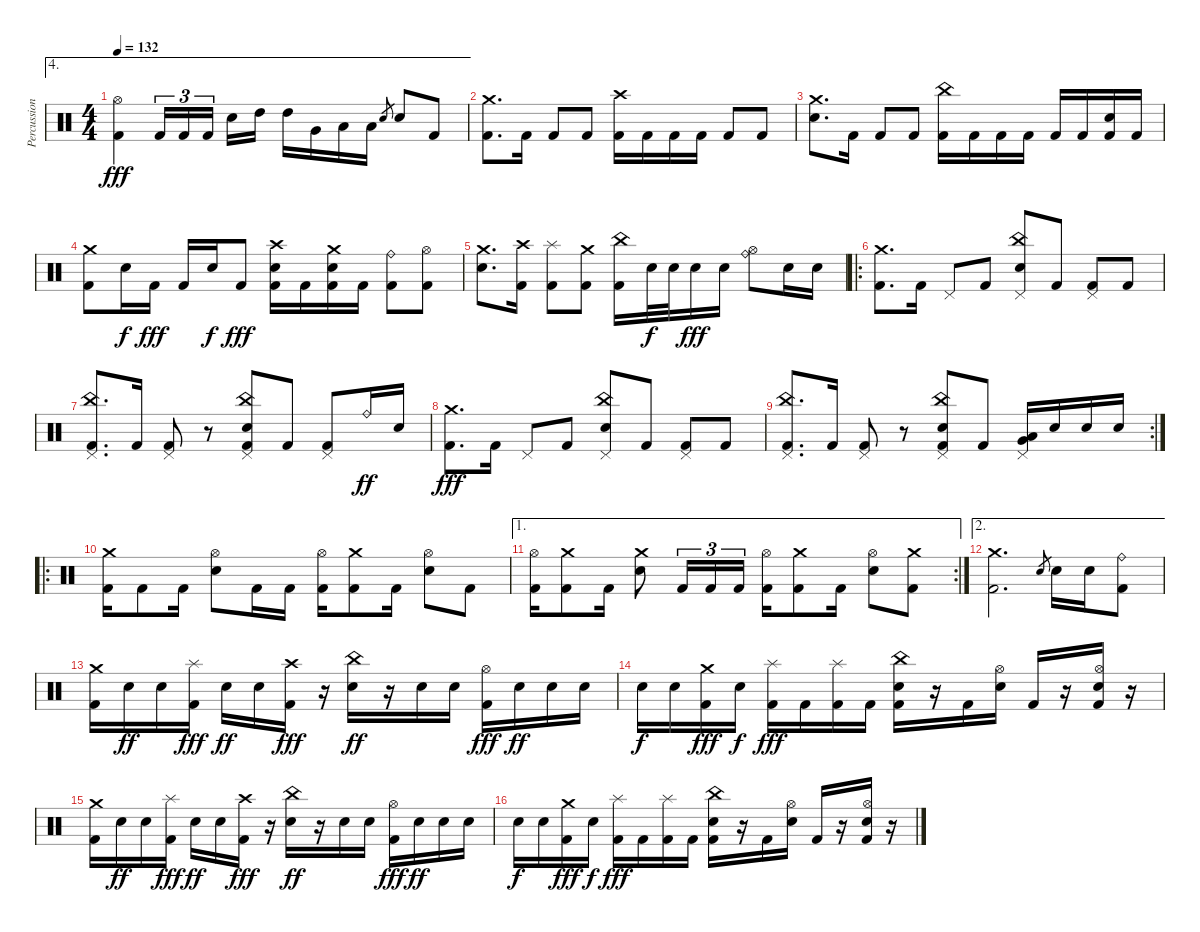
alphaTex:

\track ("Percussion" "Percussion") {instrument percussion}
\staff {score}
\articulation defaults
\ae 4
\ts (4 4)
\tempo 132
\clef neutral
\ks c
("Kick (hit) 2" "Hi-Hat (open)").4{dy fff} "Kick (hit) 2".16{tu (3 2)} "Kick (hit) 2".16{tu (3 2)} "Kick (hit) 2".16{tu (3 2) beam splitsecondary} "Electric Snare (hit)".16 "High Tom (hit)".16 "High Tom (hit)".16 "Very Low Tom (hit)".16 "Low Floor Tom (hit)".16 "Low Floor Tom (hit)".16 "Electric Snare (hit)".8{gr} "Electric Snare (hit)".8 "Kick (hit) 2".8 |
("Crash medium (hit)" "Kick (hit) 2").8{d} "Kick (hit) 2".16 "Kick (hit) 2".8 "Kick (hit) 2".8 ("Kick (hit) 2" "Crash high (hit)").16 "Kick (hit) 2".16 "Kick (hit) 2".16 "Kick (hit) 2".16 "Kick (hit) 2".8 "Kick (hit) 2".8 |
("Crash medium (hit)" "Electric Snare (hit)").8{d} "Kick (hit) 2".16 "Kick (hit) 2".8 "Kick (hit) 2".8 ("Kick (hit) 2" "China (hit)").16 "Kick (hit) 2".16 "Kick (hit) 2".16 "Kick (hit) 2".16 "Kick (hit) 2".16 "Kick (hit) 2".16 ("Electric Snare (hit)" "Kick (hit) 2").16 "Kick (hit) 2".16 |
("Crash medium (hit)" "Kick (hit) 2").8 "Electric Snare (hit)".16{dy f} "Kick (hit) 2".16{dy fff} "Kick (hit) 2".16 "Electric Snare (hit)".16{dy f} "Kick (hit) 2".8{dy fff} ("Kick (hit) 2" "Crash high (hit)" "Electric Snare (hit)").16 "Kick (hit) 2".16 ("Crash medium (hit)" "Kick (hit) 2" "Electric Snare (hit)").16 "Kick (hit) 2".16 ("Kick (hit) 2" "Ride (bell)").8 ("Kick (hit) 2" "Hi-Hat (open)").8 |
("Crash medium (hit)" "Electric Snare (hit)").8{d} ("Kick (hit) 2" "Crash high (hit)").16 ("Kick (hit) 2" "Splash (hit)").8 ("Kick (hit) 2" "Crash medium (hit)").8 ("Kick (hit) 2" "China (hit)").16 "Electric Snare (hit)".32{dy f} "Electric Snare (hit)".32 "Electric Snare (hit)".16{dy fff} "Electric Snare (hit)".16 ("Ride (bell)" "Hi-Hat (open)").8 "Electric Snare (hit)".16 "Electric Snare (hit)".16 |
\ro
("Crash medium (hit)" "Kick (hit) 2").8{d} "Kick (hit) 2".16 "Pedal Hi-Hat (hit)".8 "Kick (hit) 2".8 ("Pedal Hi-Hat (hit)" "China (hit)" "Electric Snare (hit)").8 "Kick (hit) 2".8 ("Kick (hit) 2" "Pedal Hi-Hat (hit)").8 "Kick (hit) 2".8 |
("Kick (hit) 2" "China (hit)" "Pedal Hi-Hat (hit)").8{d} "Kick (hit) 2".16 ("Kick (hit) 2" "Pedal Hi-Hat (hit)").8 r.8 ("Pedal Hi-Hat (hit)" "Kick (hit) 2" "China (hit)" "Electric Snare (hit)").8 "Kick (hit) 2".8 ("Kick (hit) 2" "Pedal Hi-Hat (hit)").8 "Ride (bell)".16{dy ff} "Electric Snare (hit)".16 |
("Crash medium (hit)" "Kick (hit) 2").8{d dy fff} "Kick (hit) 2".16 "Pedal Hi-Hat (hit)".8 "Kick (hit) 2".8 ("Pedal Hi-Hat (hit)" "China (hit)" "Electric Snare (hit)").8 "Kick (hit) 2".8 ("Kick (hit) 2" "Pedal Hi-Hat (hit)").8 "Kick (hit) 2".8 |
\rc 2
("Kick (hit) 2" "China (hit)" "Pedal Hi-Hat (hit)").8{d} "Kick (hit) 2".16 ("Kick (hit) 2" "Pedal Hi-Hat (hit)").8 r.8 ("Pedal Hi-Hat (hit)" "Kick (hit) 2" "China (hit)" "Electric Snare (hit)").8 "Kick (hit) 2".8 ("Very Low Tom (hit)" "Low Floor Tom (hit)" "Pedal Hi-Hat (hit)").16 "Electric Snare (hit)".16 "Electric Snare (hit)".16 "Electric Snare (hit)".16 |
\ro
("Kick (hit) 2" "Crash medium (hit)").16 "Kick (hit) 2".8 "Kick (hit) 2".16 ("Electric Snare (hit)" "Hi-Hat (open)").8 "Kick (hit) 2".16 "Kick (hit) 2".16 ("Kick (hit) 2" "Hi-Hat (open)").16 ("Kick (hit) 2" "Crash medium (hit)").8 "Kick (hit) 2".16 ("Electric Snare (hit)" "Hi-Hat (open)").8 "Kick (hit) 2".8 |
\ae 1
\rc 2
("Kick (hit) 2" "Hi-Hat (open)").16 ("Kick (hit) 2" "Crash medium (hit)").8 "Kick (hit) 2".16 ("Crash medium (hit)" "Electric Snare (hit)").8 "Kick (hit) 2".16{tu (3 2)} "Kick (hit) 2".16{tu (3 2)} "Kick (hit) 2".16{tu (3 2)} ("Kick (hit) 2" "Hi-Hat (open)").16 ("Kick (hit) 2" "Crash medium (hit)").8 "Kick (hit) 2".16 ("Electric Snare (hit)" "Hi-Hat (open)").8 ("Kick (hit) 2" "Crash medium (hit)").8 |
\ae 2
("Kick (hit) 2" "Crash medium (hit)").2{d} "Electric Snare (hit)".8{gr} "Electric Snare (hit)".16 "Electric Snare (hit)".16 ("Kick (hit) 2" "Ride (bell)").8 |
("Kick (hit) 2" "Crash medium (hit)").16 "Electric Snare (hit)".16{dy ff} "Electric Snare (hit)".16 ("Kick (hit) 2" "Splash (hit)").16{dy fff} "Electric Snare (hit)".16{dy ff} "Electric Snare (hit)".16 ("Kick (hit) 2" "Crash high (hit)").16{dy fff} r.16 ("China (hit)" "Electric Snare (hit)").16{dy ff} r.16 "Electric Snare (hit)".16 "Electric Snare (hit)".16 ("Hi-Hat (open)" "Kick (hit) 2").16{dy fff} "Electric Snare (hit)".16{dy ff} "Electric Snare (hit)".16 "Electric Snare (hit)".16 |
"Electric Snare (hit)".16{dy f} "Electric Snare (hit)".16 ("Kick (hit) 2" "Crash medium (hit)").16{dy fff} "Electric Snare (hit)".16{dy f} ("Kick (hit) 2" "Splash (hit)").16{dy fff} "Kick (hit) 2".16 ("Kick (hit) 2" "Splash (hit)").16 "Kick (hit) 2".16 ("Electric Snare (hit)" "Kick (hit) 2" "China (hit)").16 r.16 "Kick (hit) 2".16 ("Electric Snare (hit)" "Hi-Hat (open)").16 "Kick (hit) 2".16 r.16 ("Hi-Hat (open)" "Kick (hit) 2" "Electric Snare (hit)").16 r.16 |
("Kick (hit) 2" "Crash medium (hit)").16 "Electric Snare (hit)".16{dy ff} "Electric Snare (hit)".16 ("Kick (hit) 2" "Splash (hit)").16{dy fff} "Electric Snare (hit)".16{dy ff} "Electric Snare (hit)".16 ("Kick (hit) 2" "Crash high (hit)").16{dy fff} r.16 ("China (hit)" "Electric Snare (hit)").16{dy ff} r.16 "Electric Snare (hit)".16 "Electric Snare (hit)".16 ("Hi-Hat (open)" "Kick (hit) 2").16{dy fff} "Electric Snare (hit)".16{dy ff} "Electric Snare (hit)".16 "Electric Snare (hit)".16 |
"Electric Snare (hit)".16{dy f} "Electric Snare (hit)".16 ("Kick (hit) 2" "Crash medium (hit)").16{dy fff} "Electric Snare (hit)".16{dy f} ("Kick (hit) 2" "Splash (hit)").16{dy fff} "Kick (hit) 2".16 ("Kick (hit) 2" "Splash (hit)").16 "Kick (hit) 2".16 ("Electric Snare (hit)" "Kick (hit) 2" "China (hit)").16 r.16 "Kick (hit) 2".16 ("Electric Snare (hit)" "Hi-Hat (open)").16 "Kick (hit) 2".16 r.16 ("Hi-Hat (open)" "Kick (hit) 2" "Electric Snare (hit)").16 r.16
